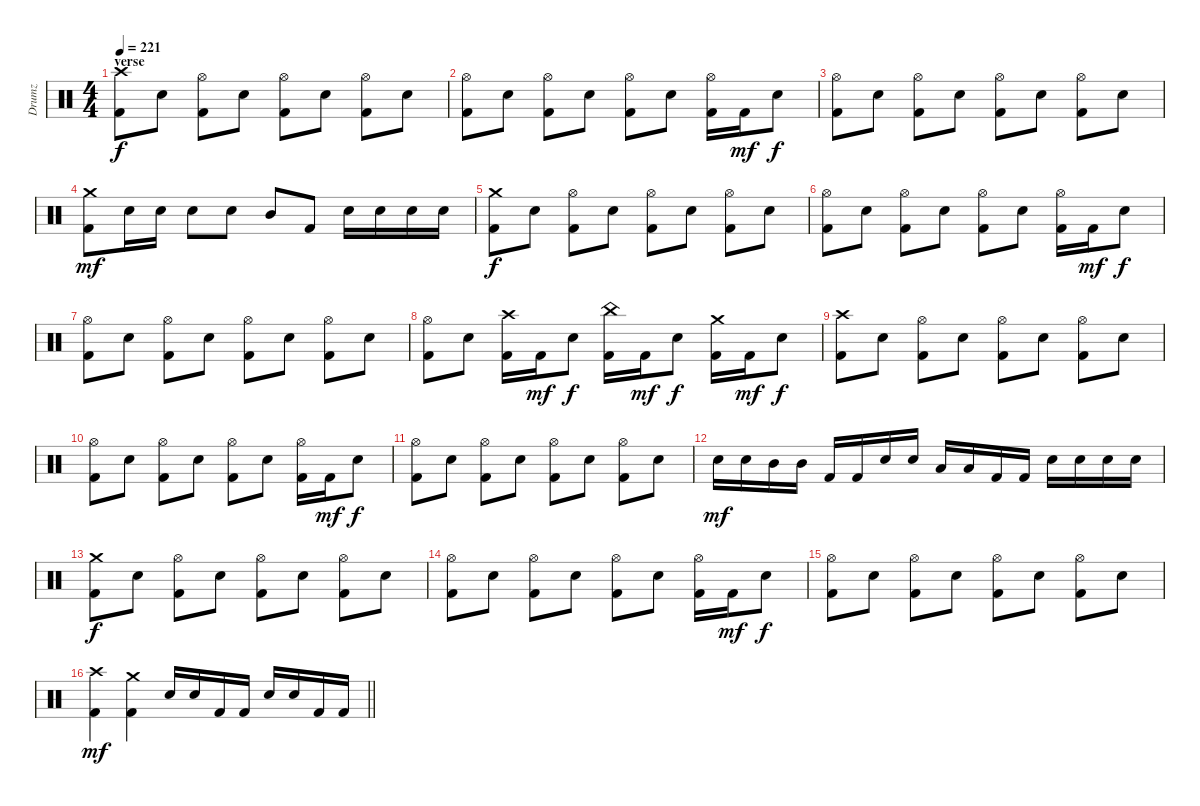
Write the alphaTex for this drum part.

\track ("Drumz" "Drumz") {instrument percussion}
\staff {score}
\articulation defaults
\ts (4 4)
\section ("" "verse")
\tempo 221
\clef neutral
\ks c
("Crash high (hit)" "Kick (hit) 2").8{dy f} "Electric Snare (hit)".8 ("Hi-Hat (open)" "Kick (hit) 2").8 "Electric Snare (hit)".8 ("Hi-Hat (open)" "Kick (hit) 2").8 "Electric Snare (hit)".8 ("Hi-Hat (open)" "Kick (hit) 2").8 "Electric Snare (hit)".8 |
("Hi-Hat (open)" "Kick (hit) 2").8 "Electric Snare (hit)".8 ("Hi-Hat (open)" "Kick (hit) 2").8 "Electric Snare (hit)".8 ("Hi-Hat (open)" "Kick (hit) 2").8 "Electric Snare (hit)".8 ("Hi-Hat (open)" "Kick (hit) 2").16 "Kick (hit) 2".16{dy mf} "Electric Snare (hit)".8{dy f} |
("Hi-Hat (open)" "Kick (hit) 2").8 "Electric Snare (hit)".8 ("Hi-Hat (open)" "Kick (hit) 2").8 "Electric Snare (hit)".8 ("Hi-Hat (open)" "Kick (hit) 2").8 "Electric Snare (hit)".8 ("Hi-Hat (open)" "Kick (hit) 2").8 "Electric Snare (hit)".8 |
("Crash medium (hit)" "Kick (hit) 2").8{dy mf} "Electric Snare (hit)".16 "Electric Snare (hit)".16 "Electric Snare (hit)".8 "Electric Snare (hit)".8 "Mid Tom (hit)".8 "Kick (hit) 2".8 "Electric Snare (hit)".16 "Electric Snare (hit)".16 "Electric Snare (hit)".16 "Electric Snare (hit)".16 |
("Crash medium (hit)" "Kick (hit) 2").8{dy f} "Electric Snare (hit)".8 ("Hi-Hat (open)" "Kick (hit) 2").8 "Electric Snare (hit)".8 ("Hi-Hat (open)" "Kick (hit) 2").8 "Electric Snare (hit)".8 ("Hi-Hat (open)" "Kick (hit) 2").8 "Electric Snare (hit)".8 |
("Hi-Hat (open)" "Kick (hit) 2").8 "Electric Snare (hit)".8 ("Hi-Hat (open)" "Kick (hit) 2").8 "Electric Snare (hit)".8 ("Hi-Hat (open)" "Kick (hit) 2").8 "Electric Snare (hit)".8 ("Hi-Hat (open)" "Kick (hit) 2").16 "Kick (hit) 2".16{dy mf} "Electric Snare (hit)".8{dy f} |
("Hi-Hat (open)" "Kick (hit) 2").8 "Electric Snare (hit)".8 ("Hi-Hat (open)" "Kick (hit) 2").8 "Electric Snare (hit)".8 ("Hi-Hat (open)" "Kick (hit) 2").8 "Electric Snare (hit)".8 ("Hi-Hat (open)" "Kick (hit) 2").8 "Electric Snare (hit)".8 |
("Hi-Hat (open)" "Kick (hit) 2").8 "Electric Snare (hit)".8 ("Crash high (hit)" "Kick (hit) 2").16 "Kick (hit) 2".16{dy mf} "Electric Snare (hit)".8{dy f} ("China (hit)" "Kick (hit) 2").16 "Kick (hit) 2".16{dy mf} "Electric Snare (hit)".8{dy f} ("Crash medium (hit)" "Kick (hit) 2").16 "Kick (hit) 2".16{dy mf} "Electric Snare (hit)".8{dy f} |
("Crash high (hit)" "Kick (hit) 2").8 "Electric Snare (hit)".8 ("Hi-Hat (open)" "Kick (hit) 2").8 "Electric Snare (hit)".8 ("Hi-Hat (open)" "Kick (hit) 2").8 "Electric Snare (hit)".8 ("Hi-Hat (open)" "Kick (hit) 2").8 "Electric Snare (hit)".8 |
("Hi-Hat (open)" "Kick (hit) 2").8 "Electric Snare (hit)".8 ("Hi-Hat (open)" "Kick (hit) 2").8 "Electric Snare (hit)".8 ("Hi-Hat (open)" "Kick (hit) 2").8 "Electric Snare (hit)".8 ("Hi-Hat (open)" "Kick (hit) 2").16 "Kick (hit) 2".16{dy mf} "Electric Snare (hit)".8{dy f} |
("Hi-Hat (open)" "Kick (hit) 2").8 "Electric Snare (hit)".8 ("Hi-Hat (open)" "Kick (hit) 2").8 "Electric Snare (hit)".8 ("Hi-Hat (open)" "Kick (hit) 2").8 "Electric Snare (hit)".8 ("Hi-Hat (open)" "Kick (hit) 2").8 "Electric Snare (hit)".8 |
"Electric Snare (hit)".16{dy mf} "Electric Snare (hit)".16 "Mid Tom (hit)".16 "Mid Tom (hit)".16 "Kick (hit) 2".16 "Kick (hit) 2".16 "Electric Snare (hit)".16 "Electric Snare (hit)".16 "Low Tom (hit)".16 "Low Tom (hit)".16 "Kick (hit) 2".16 "Kick (hit) 2".16 "Electric Snare (hit)".16 "Electric Snare (hit)".16 "Electric Snare (hit)".16 "Electric Snare (hit)".16 |
("Crash medium (hit)" "Kick (hit) 2").8{dy f} "Electric Snare (hit)".8 ("Hi-Hat (open)" "Kick (hit) 2").8 "Electric Snare (hit)".8 ("Hi-Hat (open)" "Kick (hit) 2").8 "Electric Snare (hit)".8 ("Hi-Hat (open)" "Kick (hit) 2").8 "Electric Snare (hit)".8 |
("Hi-Hat (open)" "Kick (hit) 2").8 "Electric Snare (hit)".8 ("Hi-Hat (open)" "Kick (hit) 2").8 "Electric Snare (hit)".8 ("Hi-Hat (open)" "Kick (hit) 2").8 "Electric Snare (hit)".8 ("Hi-Hat (open)" "Kick (hit) 2").16 "Kick (hit) 2".16{dy mf} "Electric Snare (hit)".8{dy f} |
("Hi-Hat (open)" "Kick (hit) 2").8 "Electric Snare (hit)".8 ("Hi-Hat (open)" "Kick (hit) 2").8 "Electric Snare (hit)".8 ("Hi-Hat (open)" "Kick (hit) 2").8 "Electric Snare (hit)".8 ("Hi-Hat (open)" "Kick (hit) 2").8 "Electric Snare (hit)".8 |
\barLineRight lightlight
("Crash high (hit)" "Kick (hit) 2").4{dy mf} ("Crash medium (hit)" "Kick (hit) 2").4 "Electric Snare (hit)".16 "Electric Snare (hit)".16 "Kick (hit) 2".16 "Kick (hit) 2".16 "Electric Snare (hit)".16 "Electric Snare (hit)".16 "Kick (hit) 2".16 "Kick (hit) 2".16
